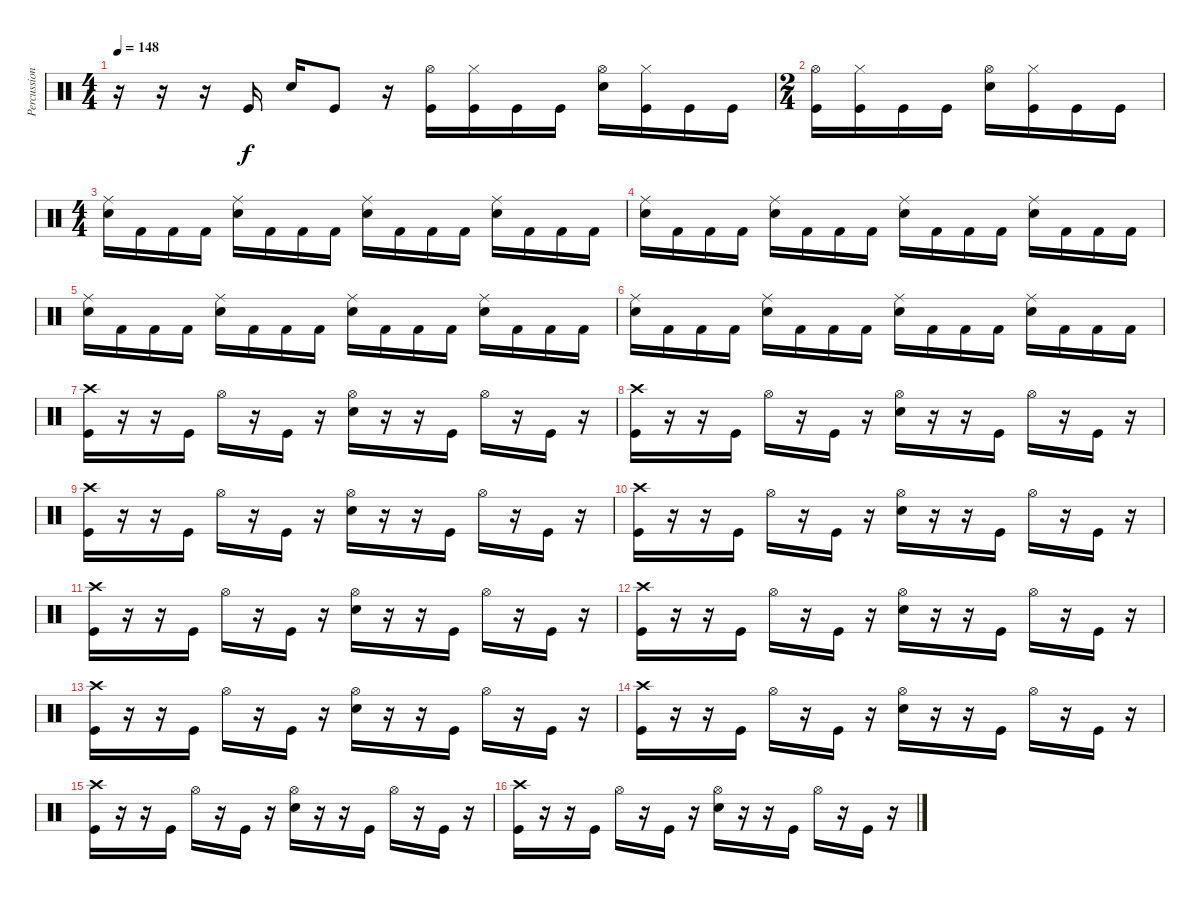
\track ("Percussion" "Percussion") {instrument percussion}
\staff {score}
\articulation defaults
\ts (4 4)
\tempo 148
\clef neutral
\ks c
r.16{dy f} r.16 r.16 "Kick (hit)".16 "Snare (hit) 2".16 "Kick (hit)".8 r.16 ("Hi-Hat (open)" "Kick (hit)").16 ("Hi-Hat (closed)" "Kick (hit)").16 "Kick (hit)".16 "Kick (hit)".16 ("Hi-Hat (open)" "Snare (hit) 2").16 ("Hi-Hat (closed)" "Kick (hit)").16 "Kick (hit)".16 "Kick (hit)".16 |
\ts (2 4)
("Hi-Hat (open)" "Kick (hit)").16 ("Hi-Hat (closed)" "Kick (hit)").16 "Kick (hit)".16 "Kick (hit)".16 ("Hi-Hat (open)" "Snare (hit) 2").16 ("Hi-Hat (closed)" "Kick (hit)").16 "Kick (hit)".16 "Kick (hit)".16 |
\ts (4 4)
("Ride (middle)" "Snare (hit) 2").16 "Kick (hit) 2".16 "Kick (hit) 2".16 "Kick (hit) 2".16 ("Ride (middle)" "Snare (hit) 2").16 "Kick (hit) 2".16 "Kick (hit) 2".16 "Kick (hit) 2".16 ("Ride (middle)" "Snare (hit) 2").16 "Kick (hit) 2".16 "Kick (hit) 2".16 "Kick (hit) 2".16 ("Ride (middle)" "Snare (hit) 2").16 "Kick (hit) 2".16 "Kick (hit) 2".16 "Kick (hit) 2".16 |
("Ride (middle)" "Snare (hit) 2").16 "Kick (hit) 2".16 "Kick (hit) 2".16 "Kick (hit) 2".16 ("Ride (middle)" "Snare (hit) 2").16 "Kick (hit) 2".16 "Kick (hit) 2".16 "Kick (hit) 2".16 ("Ride (middle)" "Snare (hit) 2").16 "Kick (hit) 2".16 "Kick (hit) 2".16 "Kick (hit) 2".16 ("Ride (middle)" "Snare (hit) 2").16 "Kick (hit) 2".16 "Kick (hit) 2".16 "Kick (hit) 2".16 |
("Ride (middle)" "Snare (hit) 2").16 "Kick (hit) 2".16 "Kick (hit) 2".16 "Kick (hit) 2".16 ("Ride (middle)" "Snare (hit) 2").16 "Kick (hit) 2".16 "Kick (hit) 2".16 "Kick (hit) 2".16 ("Ride (middle)" "Snare (hit) 2").16 "Kick (hit) 2".16 "Kick (hit) 2".16 "Kick (hit) 2".16 ("Ride (middle)" "Snare (hit) 2").16 "Kick (hit) 2".16 "Kick (hit) 2".16 "Kick (hit) 2".16 |
("Ride (middle)" "Snare (hit) 2").16 "Kick (hit) 2".16 "Kick (hit) 2".16 "Kick (hit) 2".16 ("Ride (middle)" "Snare (hit) 2").16 "Kick (hit) 2".16 "Kick (hit) 2".16 "Kick (hit) 2".16 ("Ride (middle)" "Snare (hit) 2").16 "Kick (hit) 2".16 "Kick (hit) 2".16 "Kick (hit) 2".16 ("Ride (middle)" "Snare (hit) 2").16 "Kick (hit) 2".16 "Kick (hit) 2".16 "Kick (hit) 2".16 |
("Crash high (hit)" "Kick (hit)").16 r.16 r.16 "Kick (hit)".16 "Hi-Hat (open)".16 r.16 "Kick (hit)".16 r.16 ("Hi-Hat (open)" "Snare (hit) 2").16 r.16 r.16 "Kick (hit)".16 "Hi-Hat (open)".16 r.16 "Kick (hit)".16 r.16 |
("Crash high (hit)" "Kick (hit)").16 r.16 r.16 "Kick (hit)".16 "Hi-Hat (open)".16 r.16 "Kick (hit)".16 r.16 ("Hi-Hat (open)" "Snare (hit) 2").16 r.16 r.16 "Kick (hit)".16 "Hi-Hat (open)".16 r.16 "Kick (hit)".16 r.16 |
("Crash high (hit)" "Kick (hit)").16 r.16 r.16 "Kick (hit)".16 "Hi-Hat (open)".16 r.16 "Kick (hit)".16 r.16 ("Hi-Hat (open)" "Snare (hit) 2").16 r.16 r.16 "Kick (hit)".16 "Hi-Hat (open)".16 r.16 "Kick (hit)".16 r.16 |
("Crash high (hit)" "Kick (hit)").16 r.16 r.16 "Kick (hit)".16 "Hi-Hat (open)".16 r.16 "Kick (hit)".16 r.16 ("Hi-Hat (open)" "Snare (hit) 2").16 r.16 r.16 "Kick (hit)".16 "Hi-Hat (open)".16 r.16 "Kick (hit)".16 r.16 |
("Crash high (hit)" "Kick (hit)").16 r.16 r.16 "Kick (hit)".16 "Hi-Hat (open)".16 r.16 "Kick (hit)".16 r.16 ("Hi-Hat (open)" "Snare (hit) 2").16 r.16 r.16 "Kick (hit)".16 "Hi-Hat (open)".16 r.16 "Kick (hit)".16 r.16 |
("Crash high (hit)" "Kick (hit)").16 r.16 r.16 "Kick (hit)".16 "Hi-Hat (open)".16 r.16 "Kick (hit)".16 r.16 ("Hi-Hat (open)" "Snare (hit) 2").16 r.16 r.16 "Kick (hit)".16 "Hi-Hat (open)".16 r.16 "Kick (hit)".16 r.16 |
("Crash high (hit)" "Kick (hit)").16 r.16 r.16 "Kick (hit)".16 "Hi-Hat (open)".16 r.16 "Kick (hit)".16 r.16 ("Hi-Hat (open)" "Snare (hit) 2").16 r.16 r.16 "Kick (hit)".16 "Hi-Hat (open)".16 r.16 "Kick (hit)".16 r.16 |
("Crash high (hit)" "Kick (hit)").16 r.16 r.16 "Kick (hit)".16 "Hi-Hat (open)".16 r.16 "Kick (hit)".16 r.16 ("Hi-Hat (open)" "Snare (hit) 2").16 r.16 r.16 "Kick (hit)".16 "Hi-Hat (open)".16 r.16 "Kick (hit)".16 r.16 |
("Crash high (hit)" "Kick (hit)").16 r.16 r.16 "Kick (hit)".16 "Hi-Hat (open)".16 r.16 "Kick (hit)".16 r.16 ("Hi-Hat (open)" "Snare (hit) 2").16 r.16 r.16 "Kick (hit)".16 "Hi-Hat (open)".16 r.16 "Kick (hit)".16 r.16 |
("Crash high (hit)" "Kick (hit)").16 r.16 r.16 "Kick (hit)".16 "Hi-Hat (open)".16 r.16 "Kick (hit)".16 r.16 ("Hi-Hat (open)" "Snare (hit) 2").16 r.16 r.16 "Kick (hit)".16 "Hi-Hat (open)".16 r.16 "Kick (hit)".16 r.16
